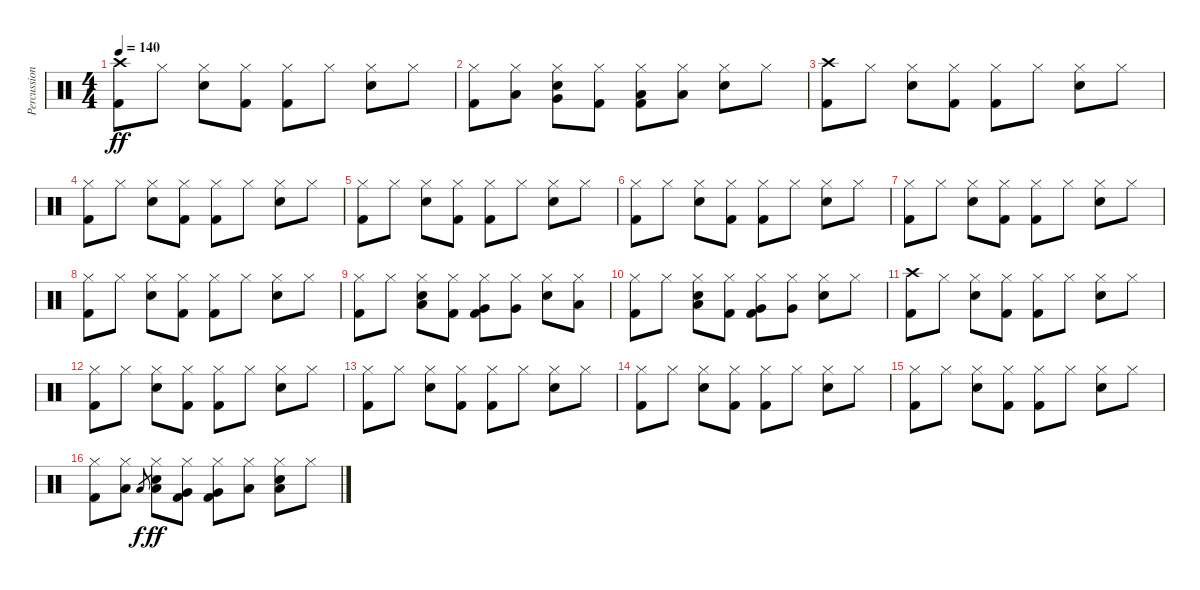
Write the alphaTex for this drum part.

\track ("Percussion" "Percussion") {instrument percussion}
\staff {score}
\articulation defaults
\ts (4 4)
\tempo 140
\clef neutral
\ks c
("Crash high (hit)" "Kick (hit) 2").8{dy ff} "Hi-Hat (closed)".8 ("Hi-Hat (closed)" "Snare (hit) 2").8 ("Hi-Hat (closed)" "Kick (hit) 2").8 ("Hi-Hat (closed)" "Kick (hit) 2").8 "Hi-Hat (closed)".8 ("Hi-Hat (closed)" "Snare (hit) 2").8 "Hi-Hat (closed)".8 |
("Hi-Hat (closed)" "Kick (hit) 2").8 ("Hi-Hat (closed)" "Low Tom (hit)").8 ("Hi-Hat (closed)" "Snare (hit) 2" "Very Low Tom (hit)").8 ("Hi-Hat (closed)" "Kick (hit) 2").8 ("Hi-Hat (closed)" "Kick (hit) 2" "Low Floor Tom (hit)").8 ("Hi-Hat (closed)" "Low Floor Tom (hit)").8 ("Hi-Hat (closed)" "Snare (hit) 2").8 "Hi-Hat (closed)".8 |
("Crash high (hit)" "Kick (hit) 2").8 "Hi-Hat (closed)".8 ("Hi-Hat (closed)" "Snare (hit) 2").8 ("Hi-Hat (closed)" "Kick (hit) 2").8 ("Hi-Hat (closed)" "Kick (hit) 2").8 "Hi-Hat (closed)".8 ("Hi-Hat (closed)" "Snare (hit) 2").8 "Hi-Hat (closed)".8 |
("Hi-Hat (closed)" "Kick (hit) 2").8 "Hi-Hat (closed)".8 ("Hi-Hat (closed)" "Snare (hit) 2").8 ("Hi-Hat (closed)" "Kick (hit) 2").8 ("Hi-Hat (closed)" "Kick (hit) 2").8 "Hi-Hat (closed)".8 ("Hi-Hat (closed)" "Snare (hit) 2").8 "Hi-Hat (closed)".8 |
("Hi-Hat (closed)" "Kick (hit) 2").8 "Hi-Hat (closed)".8 ("Hi-Hat (closed)" "Snare (hit) 2").8 ("Hi-Hat (closed)" "Kick (hit) 2").8 ("Hi-Hat (closed)" "Kick (hit) 2").8 "Hi-Hat (closed)".8 ("Hi-Hat (closed)" "Snare (hit) 2").8 "Hi-Hat (closed)".8 |
("Hi-Hat (closed)" "Kick (hit) 2").8 "Hi-Hat (closed)".8 ("Hi-Hat (closed)" "Snare (hit) 2").8 ("Hi-Hat (closed)" "Kick (hit) 2").8 ("Hi-Hat (closed)" "Kick (hit) 2").8 "Hi-Hat (closed)".8 ("Hi-Hat (closed)" "Snare (hit) 2").8 "Hi-Hat (closed)".8 |
("Hi-Hat (closed)" "Kick (hit) 2").8 "Hi-Hat (closed)".8 ("Hi-Hat (closed)" "Snare (hit) 2").8 ("Hi-Hat (closed)" "Kick (hit) 2").8 ("Hi-Hat (closed)" "Kick (hit) 2").8 "Hi-Hat (closed)".8 ("Hi-Hat (closed)" "Snare (hit) 2").8 "Hi-Hat (closed)".8 |
("Hi-Hat (closed)" "Kick (hit) 2").8 "Hi-Hat (closed)".8 ("Hi-Hat (closed)" "Snare (hit) 2").8 ("Hi-Hat (closed)" "Kick (hit) 2").8 ("Hi-Hat (closed)" "Kick (hit) 2").8 "Hi-Hat (closed)".8 ("Hi-Hat (closed)" "Snare (hit) 2").8 "Hi-Hat (closed)".8 |
("Hi-Hat (closed)" "Kick (hit) 2").8 "Hi-Hat (closed)".8 ("Hi-Hat (closed)" "Snare (hit) 2" "Low Tom (hit)").8 ("Hi-Hat (closed)" "Kick (hit) 2").8 ("Hi-Hat (closed)" "Kick (hit) 2" "Very Low Tom (hit)").8 ("Hi-Hat (closed)" "Very Low Tom (hit)").8 ("Hi-Hat (closed)" "Snare (hit) 2").8 ("Hi-Hat (closed)" "Low Tom (hit)").8 |
("Hi-Hat (closed)" "Kick (hit) 2").8 "Hi-Hat (closed)".8 ("Hi-Hat (closed)" "Snare (hit) 2" "Low Tom (hit)").8 ("Hi-Hat (closed)" "Kick (hit) 2").8 ("Hi-Hat (closed)" "Kick (hit) 2" "Very Low Tom (hit)").8 ("Hi-Hat (closed)" "Very Low Tom (hit)").8 ("Hi-Hat (closed)" "Snare (hit) 2").8 "Hi-Hat (closed)".8 |
("Crash high (hit)" "Kick (hit) 2").8 "Hi-Hat (closed)".8 ("Hi-Hat (closed)" "Snare (hit) 2").8 ("Hi-Hat (closed)" "Kick (hit) 2").8 ("Hi-Hat (closed)" "Kick (hit) 2").8 "Hi-Hat (closed)".8 ("Hi-Hat (closed)" "Snare (hit) 2").8 "Hi-Hat (closed)".8 |
("Hi-Hat (closed)" "Kick (hit) 2").8 "Hi-Hat (closed)".8 ("Hi-Hat (closed)" "Snare (hit) 2").8 ("Hi-Hat (closed)" "Kick (hit) 2").8 ("Hi-Hat (closed)" "Kick (hit) 2").8 "Hi-Hat (closed)".8 ("Hi-Hat (closed)" "Snare (hit) 2").8 "Hi-Hat (closed)".8 |
("Hi-Hat (closed)" "Kick (hit) 2").8 "Hi-Hat (closed)".8 ("Hi-Hat (closed)" "Snare (hit) 2").8 ("Hi-Hat (closed)" "Kick (hit) 2").8 ("Hi-Hat (closed)" "Kick (hit) 2").8 "Hi-Hat (closed)".8 ("Hi-Hat (closed)" "Snare (hit) 2").8 "Hi-Hat (closed)".8 |
("Hi-Hat (closed)" "Kick (hit) 2").8 "Hi-Hat (closed)".8 ("Hi-Hat (closed)" "Snare (hit) 2").8 ("Hi-Hat (closed)" "Kick (hit) 2").8 ("Hi-Hat (closed)" "Kick (hit) 2").8 "Hi-Hat (closed)".8 ("Hi-Hat (closed)" "Snare (hit) 2").8 "Hi-Hat (closed)".8 |
("Hi-Hat (closed)" "Kick (hit) 2").8 "Hi-Hat (closed)".8 ("Hi-Hat (closed)" "Snare (hit) 2").8 ("Hi-Hat (closed)" "Kick (hit) 2").8 ("Hi-Hat (closed)" "Kick (hit) 2").8 "Hi-Hat (closed)".8 ("Hi-Hat (closed)" "Snare (hit) 2").8 "Hi-Hat (closed)".8 |
("Hi-Hat (closed)" "Kick (hit) 2").8 ("Hi-Hat (closed)" "Low Tom (hit)").8 "Low Tom (hit)".8{gr dy f} ("Hi-Hat (closed)" "Snare (hit) 2" "Low Tom (hit)").8{dy ff} ("Hi-Hat (closed)" "Kick (hit) 2" "Very Low Tom (hit)").8 ("Hi-Hat (closed)" "Kick (hit) 2" "Very Low Tom (hit)").8 ("Hi-Hat (closed)" "Low Floor Tom (hit)").8 ("Hi-Hat (closed)" "Snare (hit) 2" "Low Floor Tom (hit)").8 "Hi-Hat (closed)".8
